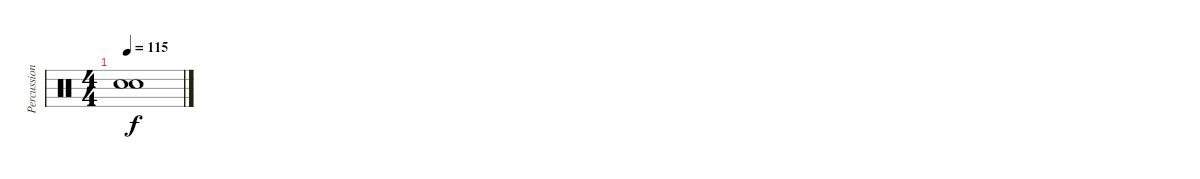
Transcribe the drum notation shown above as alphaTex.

\track ("Percussion" "Percussion") {instrument percussion}
\staff {score}
\articulation defaults
\ts (4 4)
\tempo 115
\clef neutral
\ks c
("Snare (hit)"{t} "Snare (hit)"{t}).1{dy f}
